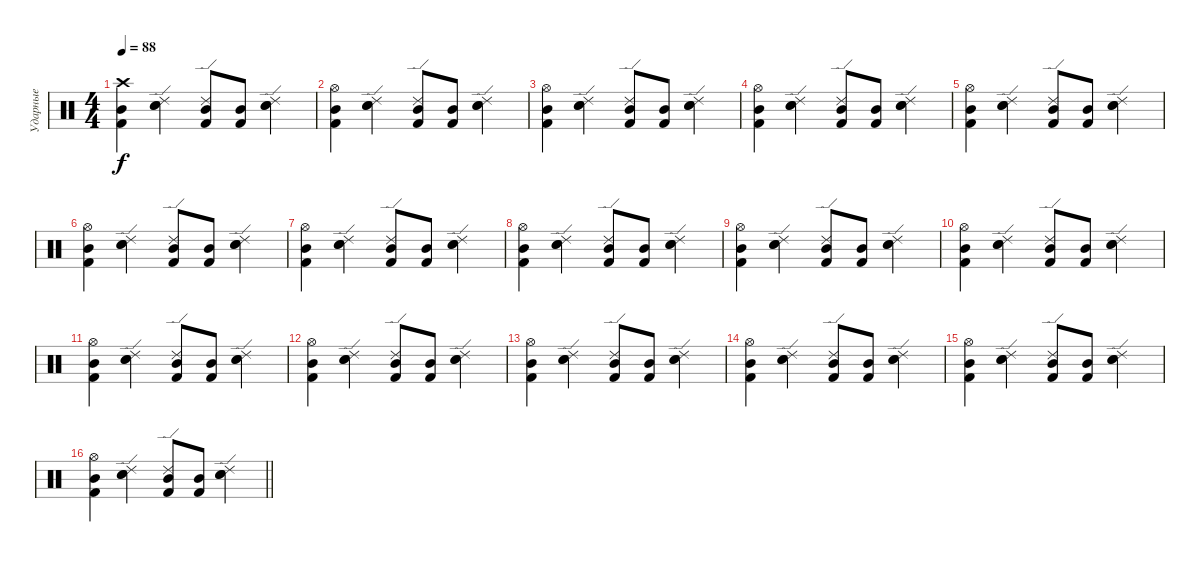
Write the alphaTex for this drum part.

\track ("Ударные" "Ударные") {instrument percussion}
\staff {score}
\articulation defaults
\ts (4 4)
\tempo 88
\clef neutral
\ks c
("Kick (hit) 2" "Mid Tom (hit)" "Crash high (hit)").4{dy f} ("Ride (edge) 2" "Electric Snare (hit)" "Electric Snare (hit)").4 ("Ride (edge) 2" "Mid Tom (hit)" "Kick (hit) 2").8 ("Mid Tom (hit)" "Kick (hit) 2").8 ("Ride (edge) 2" "Electric Snare (hit)" "Electric Snare (hit)").4 |
("Kick (hit) 2" "Mid Tom (hit)" "Hi-Hat (open)").4 ("Ride (edge) 2" "Electric Snare (hit)" "Electric Snare (hit)").4 ("Ride (edge) 2" "Mid Tom (hit)" "Kick (hit) 2").8 ("Mid Tom (hit)" "Kick (hit) 2").8 ("Ride (edge) 2" "Electric Snare (hit)" "Electric Snare (hit)").4 |
("Kick (hit) 2" "Mid Tom (hit)" "Hi-Hat (open)").4 ("Ride (edge) 2" "Electric Snare (hit)" "Electric Snare (hit)").4 ("Ride (edge) 2" "Mid Tom (hit)" "Kick (hit) 2").8 ("Mid Tom (hit)" "Kick (hit) 2").8 ("Ride (edge) 2" "Electric Snare (hit)" "Electric Snare (hit)").4 |
("Kick (hit) 2" "Mid Tom (hit)" "Hi-Hat (open)").4 ("Ride (edge) 2" "Electric Snare (hit)" "Electric Snare (hit)").4 ("Ride (edge) 2" "Mid Tom (hit)" "Kick (hit) 2").8 ("Mid Tom (hit)" "Kick (hit) 2").8 ("Ride (edge) 2" "Electric Snare (hit)" "Electric Snare (hit)").4 |
("Kick (hit) 2" "Mid Tom (hit)" "Hi-Hat (open)").4 ("Ride (edge) 2" "Electric Snare (hit)" "Electric Snare (hit)").4 ("Ride (edge) 2" "Mid Tom (hit)" "Kick (hit) 2").8 ("Mid Tom (hit)" "Kick (hit) 2").8 ("Ride (edge) 2" "Electric Snare (hit)" "Electric Snare (hit)").4 |
("Kick (hit) 2" "Mid Tom (hit)" "Hi-Hat (open)").4 ("Ride (edge) 2" "Electric Snare (hit)" "Electric Snare (hit)").4 ("Ride (edge) 2" "Mid Tom (hit)" "Kick (hit) 2").8 ("Mid Tom (hit)" "Kick (hit) 2").8 ("Ride (edge) 2" "Electric Snare (hit)" "Electric Snare (hit)").4 |
("Kick (hit) 2" "Mid Tom (hit)" "Hi-Hat (open)").4 ("Ride (edge) 2" "Electric Snare (hit)" "Electric Snare (hit)").4 ("Ride (edge) 2" "Mid Tom (hit)" "Kick (hit) 2").8 ("Mid Tom (hit)" "Kick (hit) 2").8 ("Ride (edge) 2" "Electric Snare (hit)" "Electric Snare (hit)").4 |
("Kick (hit) 2" "Mid Tom (hit)" "Hi-Hat (open)").4 ("Ride (edge) 2" "Electric Snare (hit)" "Electric Snare (hit)").4 ("Ride (edge) 2" "Mid Tom (hit)" "Kick (hit) 2").8 ("Mid Tom (hit)" "Kick (hit) 2").8 ("Ride (edge) 2" "Electric Snare (hit)" "Electric Snare (hit)").4 |
("Kick (hit) 2" "Mid Tom (hit)" "Hi-Hat (open)").4 ("Ride (edge) 2" "Electric Snare (hit)" "Electric Snare (hit)").4 ("Ride (edge) 2" "Mid Tom (hit)" "Kick (hit) 2").8 ("Mid Tom (hit)" "Kick (hit) 2").8 ("Ride (edge) 2" "Electric Snare (hit)" "Electric Snare (hit)").4 |
("Kick (hit) 2" "Mid Tom (hit)" "Hi-Hat (open)").4 ("Ride (edge) 2" "Electric Snare (hit)" "Electric Snare (hit)").4 ("Ride (edge) 2" "Mid Tom (hit)" "Kick (hit) 2").8 ("Mid Tom (hit)" "Kick (hit) 2").8 ("Ride (edge) 2" "Electric Snare (hit)" "Electric Snare (hit)").4 |
("Kick (hit) 2" "Mid Tom (hit)" "Hi-Hat (open)").4 ("Ride (edge) 2" "Electric Snare (hit)" "Electric Snare (hit)").4 ("Ride (edge) 2" "Mid Tom (hit)" "Kick (hit) 2").8 ("Mid Tom (hit)" "Kick (hit) 2").8 ("Ride (edge) 2" "Electric Snare (hit)" "Electric Snare (hit)").4 |
("Kick (hit) 2" "Mid Tom (hit)" "Hi-Hat (open)").4 ("Ride (edge) 2" "Electric Snare (hit)" "Electric Snare (hit)").4 ("Ride (edge) 2" "Mid Tom (hit)" "Kick (hit) 2").8 ("Mid Tom (hit)" "Kick (hit) 2").8 ("Ride (edge) 2" "Electric Snare (hit)" "Electric Snare (hit)").4 |
("Kick (hit) 2" "Mid Tom (hit)" "Hi-Hat (open)").4 ("Ride (edge) 2" "Electric Snare (hit)" "Electric Snare (hit)").4 ("Ride (edge) 2" "Mid Tom (hit)" "Kick (hit) 2").8 ("Mid Tom (hit)" "Kick (hit) 2").8 ("Ride (edge) 2" "Electric Snare (hit)" "Electric Snare (hit)").4 |
("Kick (hit) 2" "Mid Tom (hit)" "Hi-Hat (open)").4 ("Ride (edge) 2" "Electric Snare (hit)" "Electric Snare (hit)").4 ("Ride (edge) 2" "Mid Tom (hit)" "Kick (hit) 2").8 ("Mid Tom (hit)" "Kick (hit) 2").8 ("Ride (edge) 2" "Electric Snare (hit)" "Electric Snare (hit)").4 |
("Kick (hit) 2" "Mid Tom (hit)" "Hi-Hat (open)").4 ("Ride (edge) 2" "Electric Snare (hit)" "Electric Snare (hit)").4 ("Ride (edge) 2" "Mid Tom (hit)" "Kick (hit) 2").8 ("Mid Tom (hit)" "Kick (hit) 2").8 ("Ride (edge) 2" "Electric Snare (hit)" "Electric Snare (hit)").4 |
\barLineRight lightlight
("Kick (hit) 2" "Mid Tom (hit)" "Hi-Hat (open)").4 ("Ride (edge) 2" "Electric Snare (hit)" "Electric Snare (hit)").4 ("Ride (edge) 2" "Mid Tom (hit)" "Kick (hit) 2").8 ("Mid Tom (hit)" "Kick (hit) 2").8 ("Ride (edge) 2" "Electric Snare (hit)" "Electric Snare (hit)").4
